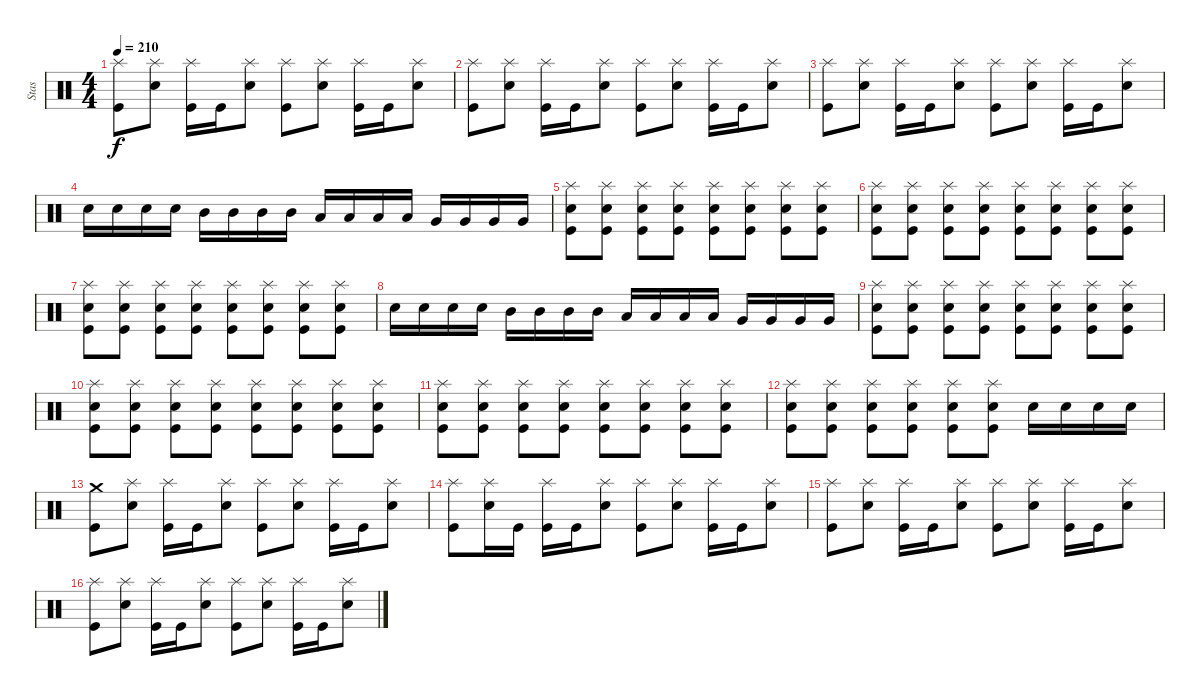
\track ("Stas" "Stas") {instrument percussion}
\staff {score}
\articulation defaults
\ts (4 4)
\tempo 210
\clef neutral
\ks c
("Splash (hit)" "Kick (hit)").8{dy f} ("Splash (hit)" "Electric Snare (hit)").8 ("Splash (hit)" "Kick (hit)").16 "Kick (hit)".16 ("Splash (hit)" "Electric Snare (hit)").8 ("Splash (hit)" "Kick (hit)").8 ("Splash (hit)" "Electric Snare (hit)").8 ("Splash (hit)" "Kick (hit)").16 "Kick (hit)".16 ("Splash (hit)" "Electric Snare (hit)").8 |
("Splash (hit)" "Kick (hit)").8 ("Splash (hit)" "Electric Snare (hit)").8 ("Splash (hit)" "Kick (hit)").16 "Kick (hit)".16 ("Splash (hit)" "Electric Snare (hit)").8 ("Splash (hit)" "Kick (hit)").8 ("Splash (hit)" "Electric Snare (hit)").8 ("Splash (hit)" "Kick (hit)").16 "Kick (hit)".16 ("Splash (hit)" "Electric Snare (hit)").8 |
("Splash (hit)" "Kick (hit)").8 ("Splash (hit)" "Electric Snare (hit)").8 ("Splash (hit)" "Kick (hit)").16 "Kick (hit)".16 ("Splash (hit)" "Electric Snare (hit)").8 ("Splash (hit)" "Kick (hit)").8 ("Splash (hit)" "Electric Snare (hit)").8 ("Splash (hit)" "Kick (hit)").16 "Kick (hit)".16 ("Splash (hit)" "Electric Snare (hit)").8 |
"Electric Snare (hit)".16 "Electric Snare (hit)".16 "Electric Snare (hit)".16 "Electric Snare (hit)".16 "Mid Tom (hit)".16 "Mid Tom (hit)".16 "Mid Tom (hit)".16 "Mid Tom (hit)".16 "Low Tom (hit)".16 "Low Tom (hit)".16 "Low Tom (hit)".16 "Low Tom (hit)".16 "Very Low Tom (hit)".16 "Very Low Tom (hit)".16 "Very Low Tom (hit)".16 "Very Low Tom (hit)".16 |
("Kick (hit)" "Electric Snare (hit)" "Splash (hit)").8 ("Kick (hit)" "Electric Snare (hit)" "Splash (hit)").8 ("Kick (hit)" "Electric Snare (hit)" "Splash (hit)").8 ("Kick (hit)" "Electric Snare (hit)" "Splash (hit)").8 ("Kick (hit)" "Electric Snare (hit)" "Splash (hit)").8 ("Kick (hit)" "Electric Snare (hit)" "Splash (hit)").8 ("Kick (hit)" "Electric Snare (hit)" "Splash (hit)").8 ("Kick (hit)" "Electric Snare (hit)" "Splash (hit)").8 |
("Kick (hit)" "Electric Snare (hit)" "Splash (hit)").8 ("Kick (hit)" "Electric Snare (hit)" "Splash (hit)").8 ("Kick (hit)" "Electric Snare (hit)" "Splash (hit)").8 ("Kick (hit)" "Electric Snare (hit)" "Splash (hit)").8 ("Kick (hit)" "Electric Snare (hit)" "Splash (hit)").8 ("Kick (hit)" "Electric Snare (hit)" "Splash (hit)").8 ("Kick (hit)" "Electric Snare (hit)" "Splash (hit)").8 ("Kick (hit)" "Electric Snare (hit)" "Splash (hit)").8 |
("Kick (hit)" "Electric Snare (hit)" "Splash (hit)").8 ("Kick (hit)" "Electric Snare (hit)" "Splash (hit)").8 ("Kick (hit)" "Electric Snare (hit)" "Splash (hit)").8 ("Kick (hit)" "Electric Snare (hit)" "Splash (hit)").8 ("Kick (hit)" "Electric Snare (hit)" "Splash (hit)").8 ("Kick (hit)" "Electric Snare (hit)" "Splash (hit)").8 ("Kick (hit)" "Electric Snare (hit)" "Splash (hit)").8 ("Kick (hit)" "Electric Snare (hit)" "Splash (hit)").8 |
"Electric Snare (hit)".16 "Electric Snare (hit)".16 "Electric Snare (hit)".16 "Electric Snare (hit)".16 "Mid Tom (hit)".16 "Mid Tom (hit)".16 "Mid Tom (hit)".16 "Mid Tom (hit)".16 "Low Tom (hit)".16 "Low Tom (hit)".16 "Low Tom (hit)".16 "Low Tom (hit)".16 "Very Low Tom (hit)".16 "Very Low Tom (hit)".16 "Very Low Tom (hit)".16 "Very Low Tom (hit)".16 |
("Kick (hit)" "Electric Snare (hit)" "Splash (hit)").8 ("Kick (hit)" "Electric Snare (hit)" "Splash (hit)").8 ("Kick (hit)" "Electric Snare (hit)" "Splash (hit)").8 ("Kick (hit)" "Electric Snare (hit)" "Splash (hit)").8 ("Kick (hit)" "Electric Snare (hit)" "Splash (hit)").8 ("Kick (hit)" "Electric Snare (hit)" "Splash (hit)").8 ("Kick (hit)" "Electric Snare (hit)" "Splash (hit)").8 ("Kick (hit)" "Electric Snare (hit)" "Splash (hit)").8 |
("Kick (hit)" "Electric Snare (hit)" "Splash (hit)").8 ("Kick (hit)" "Electric Snare (hit)" "Splash (hit)").8 ("Kick (hit)" "Electric Snare (hit)" "Splash (hit)").8 ("Kick (hit)" "Electric Snare (hit)" "Splash (hit)").8 ("Kick (hit)" "Electric Snare (hit)" "Splash (hit)").8 ("Kick (hit)" "Electric Snare (hit)" "Splash (hit)").8 ("Kick (hit)" "Electric Snare (hit)" "Splash (hit)").8 ("Kick (hit)" "Electric Snare (hit)" "Splash (hit)").8 |
("Kick (hit)" "Electric Snare (hit)" "Splash (hit)").8 ("Kick (hit)" "Electric Snare (hit)" "Splash (hit)").8 ("Kick (hit)" "Electric Snare (hit)" "Splash (hit)").8 ("Kick (hit)" "Electric Snare (hit)" "Splash (hit)").8 ("Kick (hit)" "Electric Snare (hit)" "Splash (hit)").8 ("Kick (hit)" "Electric Snare (hit)" "Splash (hit)").8 ("Kick (hit)" "Electric Snare (hit)" "Splash (hit)").8 ("Kick (hit)" "Electric Snare (hit)" "Splash (hit)").8 |
("Kick (hit)" "Electric Snare (hit)" "Splash (hit)").8 ("Kick (hit)" "Electric Snare (hit)" "Splash (hit)").8 ("Kick (hit)" "Electric Snare (hit)" "Splash (hit)").8 ("Kick (hit)" "Electric Snare (hit)" "Splash (hit)").8 ("Kick (hit)" "Electric Snare (hit)" "Splash (hit)").8 ("Kick (hit)" "Electric Snare (hit)" "Splash (hit)").8 "Electric Snare (hit)".16 "Electric Snare (hit)".16 "Electric Snare (hit)".16 "Electric Snare (hit)".16 |
("Crash medium (hit)" "Kick (hit)").8 ("Splash (hit)" "Electric Snare (hit)").8 ("Splash (hit)" "Kick (hit)").16 "Kick (hit)".16 ("Splash (hit)" "Electric Snare (hit)").8 ("Splash (hit)" "Kick (hit)").8 ("Splash (hit)" "Electric Snare (hit)").8 ("Splash (hit)" "Kick (hit)").16 "Kick (hit)".16 ("Splash (hit)" "Electric Snare (hit)").8 |
("Splash (hit)" "Kick (hit)").8 ("Splash (hit)" "Electric Snare (hit)").16 "Kick (hit)".16 ("Splash (hit)" "Kick (hit)").16 "Kick (hit)".16 ("Splash (hit)" "Electric Snare (hit)").8 ("Splash (hit)" "Kick (hit)").8 ("Splash (hit)" "Electric Snare (hit)").8 ("Splash (hit)" "Kick (hit)").16 "Kick (hit)".16 ("Splash (hit)" "Electric Snare (hit)").8 |
("Splash (hit)" "Kick (hit)").8 ("Splash (hit)" "Electric Snare (hit)").8 ("Splash (hit)" "Kick (hit)").16 "Kick (hit)".16 ("Splash (hit)" "Electric Snare (hit)").8 ("Splash (hit)" "Kick (hit)").8 ("Splash (hit)" "Electric Snare (hit)").8 ("Splash (hit)" "Kick (hit)").16 "Kick (hit)".16 ("Splash (hit)" "Electric Snare (hit)").8 |
("Splash (hit)" "Kick (hit)").8 ("Splash (hit)" "Electric Snare (hit)").8 ("Splash (hit)" "Kick (hit)").16 "Kick (hit)".16 ("Splash (hit)" "Electric Snare (hit)").8 ("Splash (hit)" "Kick (hit)").8 ("Splash (hit)" "Electric Snare (hit)").8 ("Splash (hit)" "Kick (hit)").16 "Kick (hit)".16 ("Splash (hit)" "Electric Snare (hit)").8
